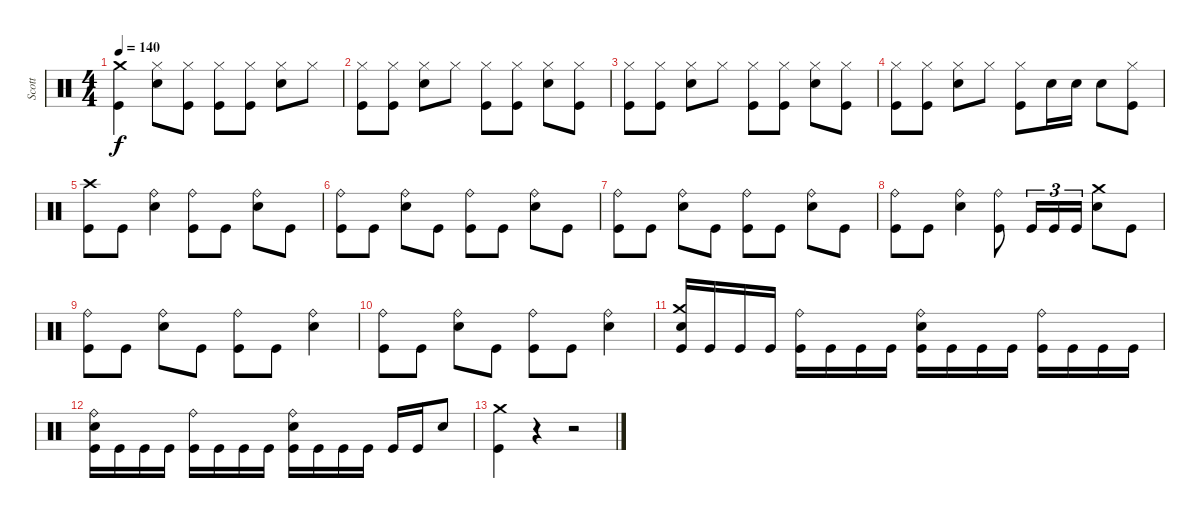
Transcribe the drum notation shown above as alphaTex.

\track ("Scott" "Scott") {instrument percussion}
\staff {score}
\articulation defaults
\ts (4 4)
\tempo 140
\clef neutral
\ks c
("Kick (hit)" "Crash medium (hit)").4{dy f} ("Snare (hit) 2" "Hi-Hat (closed)").8 ("Kick (hit)" "Hi-Hat (closed)").8 ("Kick (hit)" "Hi-Hat (closed)").8 ("Kick (hit)" "Hi-Hat (closed)").8 ("Snare (hit) 2" "Hi-Hat (closed)").8 "Hi-Hat (closed)".8 |
("Kick (hit)" "Hi-Hat (closed)").8 ("Kick (hit)" "Hi-Hat (closed)").8 ("Snare (hit) 2" "Hi-Hat (closed)").8 "Hi-Hat (closed)".8 ("Kick (hit)" "Hi-Hat (closed)").8 ("Kick (hit)" "Hi-Hat (closed)").8 ("Snare (hit) 2" "Hi-Hat (closed)").8 ("Kick (hit)" "Hi-Hat (closed)").8 |
("Kick (hit)" "Hi-Hat (closed)").8 ("Kick (hit)" "Hi-Hat (closed)").8 ("Snare (hit) 2" "Hi-Hat (closed)").8 "Hi-Hat (closed)".8 ("Kick (hit)" "Hi-Hat (closed)").8 ("Kick (hit)" "Hi-Hat (closed)").8 ("Snare (hit) 2" "Hi-Hat (closed)").8 ("Kick (hit)" "Hi-Hat (closed)").8 |
("Kick (hit)" "Hi-Hat (closed)").8 ("Kick (hit)" "Hi-Hat (closed)").8 ("Snare (hit) 2" "Hi-Hat (closed)").8 "Hi-Hat (closed)".8 ("Kick (hit)" "Hi-Hat (closed)").8 "Snare (hit) 2".16 "Snare (hit) 2".16 "Snare (hit) 2".8 ("Kick (hit)" "Hi-Hat (closed)").8 |
("Kick (hit)" "Crash high (hit)").8 "Kick (hit)".8 ("Snare (hit) 2" "Ride (bell)").4 ("Kick (hit)" "Ride (bell)").8 "Kick (hit)".8 ("Snare (hit) 2" "Ride (bell)").8 "Kick (hit)".8 |
("Kick (hit)" "Ride (bell)").8 "Kick (hit)".8 ("Snare (hit) 2" "Ride (bell)").8 "Kick (hit)".8 ("Kick (hit)" "Ride (bell)").8 "Kick (hit)".8 ("Snare (hit) 2" "Ride (bell)").8 "Kick (hit)".8 |
("Kick (hit)" "Ride (bell)").8 "Kick (hit)".8 ("Snare (hit) 2" "Ride (bell)").8 "Kick (hit)".8 ("Kick (hit)" "Ride (bell)").8 "Kick (hit)".8 ("Snare (hit) 2" "Ride (bell)").8 "Kick (hit)".8 |
("Kick (hit)" "Ride (bell)").8 "Kick (hit)".8 ("Snare (hit) 2" "Ride (bell)").4 ("Kick (hit)" "Ride (bell)").8 "Kick (hit)".16{tu (3 2)} "Kick (hit)".16{tu (3 2)} "Kick (hit)".16{tu (3 2)} ("Snare (hit) 2" "Crash medium (hit)").8 "Kick (hit)".8 |
("Kick (hit)" "Ride (bell)").8 "Kick (hit)".8 ("Snare (hit) 2" "Ride (bell)").8 "Kick (hit)".8 ("Kick (hit)" "Ride (bell)").8 "Kick (hit)".8 ("Snare (hit) 2" "Ride (bell)").4 |
("Kick (hit)" "Ride (bell)").8 "Kick (hit)".8 ("Snare (hit) 2" "Ride (bell)").8 "Kick (hit)".8 ("Kick (hit)" "Ride (bell)").8 "Kick (hit)".8 ("Snare (hit) 2" "Ride (bell)").4 |
("Kick (hit)" "Snare (hit) 2" "Crash medium (hit)").16 "Kick (hit)".16 "Kick (hit)".16 "Kick (hit)".16 ("Kick (hit)" "Ride (bell)").16 "Kick (hit)".16 "Kick (hit)".16 "Kick (hit)".16 ("Kick (hit)" "Snare (hit) 2" "Ride (bell)").16 "Kick (hit)".16 "Kick (hit)".16 "Kick (hit)".16 ("Kick (hit)" "Ride (bell)").16 "Kick (hit)".16 "Kick (hit)".16 "Kick (hit)".16 |
("Kick (hit)" "Snare (hit) 2" "Ride (bell)").16 "Kick (hit)".16 "Kick (hit)".16 "Kick (hit)".16 ("Kick (hit)" "Ride (bell)").16 "Kick (hit)".16 "Kick (hit)".16 "Kick (hit)".16 ("Kick (hit)" "Snare (hit) 2" "Ride (bell)").16 "Kick (hit)".16 "Kick (hit)".16 "Kick (hit)".16 "Kick (hit)".16 "Kick (hit)".16 "Snare (hit) 2".8 |
("Kick (hit)" "Crash medium (hit)").4 r.4 r.2
